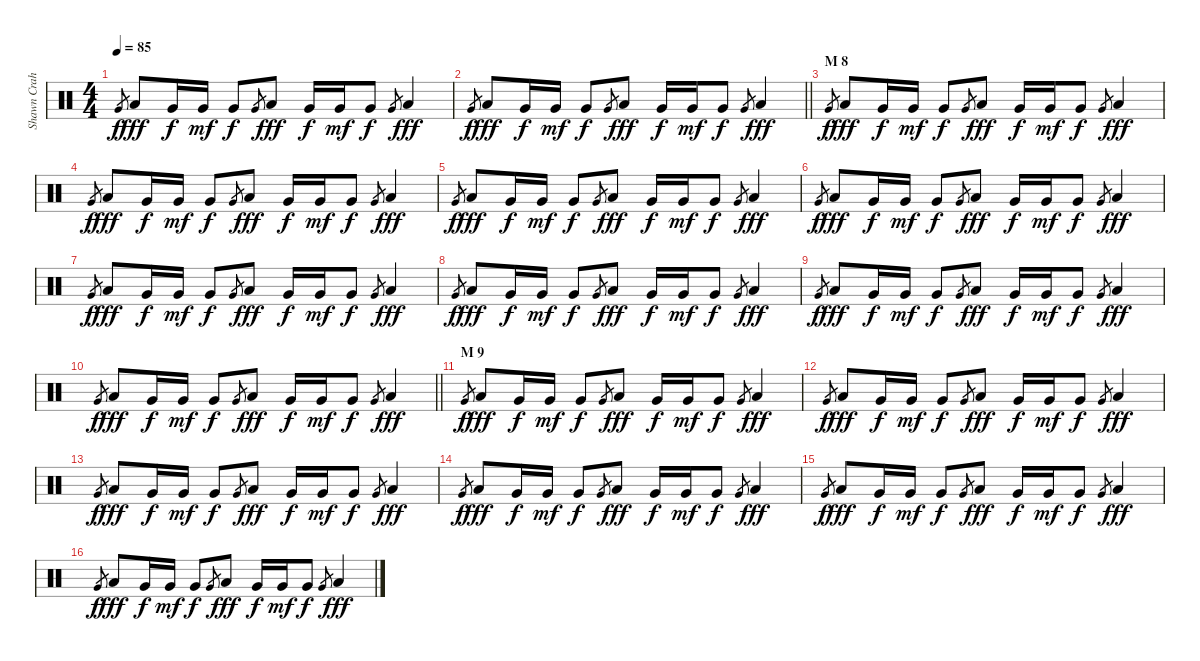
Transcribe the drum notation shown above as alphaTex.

\track ("Shawn Crahan" "Shawn Crah") {instrument percussion}
\staff {score}
\articulation defaults
\ts (4 4)
\tempo 85
\clef neutral
\ks c "Very Low Tom (hit)".8{gr dy f} "Low Tom (hit)".8{dy fff} "Very Low Tom (hit)".16{dy f} "Very Low Tom (hit)".16{dy mf} "Very Low Tom (hit)".8{dy f} "Very Low Tom (hit)".8{gr} "Low Tom (hit)".8{dy fff} "Very Low Tom (hit)".16{dy f} "Very Low Tom (hit)".16{dy mf} "Very Low Tom (hit)".8{dy f} "Very Low Tom (hit)".8{gr} "Low Tom (hit)".4{dy fff}
|
\barLineRight lightlight "Very Low Tom (hit)".8{gr dy f} "Low Tom (hit)".8{dy fff} "Very Low Tom (hit)".16{dy f} "Very Low Tom (hit)".16{dy mf} "Very Low Tom (hit)".8{dy f} "Very Low Tom (hit)".8{gr} "Low Tom (hit)".8{dy fff} "Very Low Tom (hit)".16{dy f} "Very Low Tom (hit)".16{dy mf} "Very Low Tom (hit)".8{dy f} "Very Low Tom (hit)".8{gr} "Low Tom (hit)".4{dy fff}
|
\section ("" "M 8")
"Very Low Tom (hit)".8{gr dy f} "Low Tom (hit)".8{dy fff} "Very Low Tom (hit)".16{dy f} "Very Low Tom (hit)".16{dy mf} "Very Low Tom (hit)".8{dy f} "Very Low Tom (hit)".8{gr} "Low Tom (hit)".8{dy fff} "Very Low Tom (hit)".16{dy f} "Very Low Tom (hit)".16{dy mf} "Very Low Tom (hit)".8{dy f} "Very Low Tom (hit)".8{gr} "Low Tom (hit)".4{dy fff} |
"Very Low Tom (hit)".8{gr dy f} "Low Tom (hit)".8{dy fff} "Very Low Tom (hit)".16{dy f} "Very Low Tom (hit)".16{dy mf} "Very Low Tom (hit)".8{dy f} "Very Low Tom (hit)".8{gr} "Low Tom (hit)".8{dy fff} "Very Low Tom (hit)".16{dy f} "Very Low Tom (hit)".16{dy mf} "Very Low Tom (hit)".8{dy f} "Very Low Tom (hit)".8{gr} "Low Tom (hit)".4{dy fff} |
"Very Low Tom (hit)".8{gr dy f} "Low Tom (hit)".8{dy fff} "Very Low Tom (hit)".16{dy f} "Very Low Tom (hit)".16{dy mf} "Very Low Tom (hit)".8{dy f} "Very Low Tom (hit)".8{gr} "Low Tom (hit)".8{dy fff} "Very Low Tom (hit)".16{dy f} "Very Low Tom (hit)".16{dy mf} "Very Low Tom (hit)".8{dy f} "Very Low Tom (hit)".8{gr} "Low Tom (hit)".4{dy fff} |
"Very Low Tom (hit)".8{gr dy f} "Low Tom (hit)".8{dy fff} "Very Low Tom (hit)".16{dy f} "Very Low Tom (hit)".16{dy mf} "Very Low Tom (hit)".8{dy f} "Very Low Tom (hit)".8{gr} "Low Tom (hit)".8{dy fff} "Very Low Tom (hit)".16{dy f} "Very Low Tom (hit)".16{dy mf} "Very Low Tom (hit)".8{dy f} "Very Low Tom (hit)".8{gr} "Low Tom (hit)".4{dy fff} |
"Very Low Tom (hit)".8{gr dy f} "Low Tom (hit)".8{dy fff} "Very Low Tom (hit)".16{dy f} "Very Low Tom (hit)".16{dy mf} "Very Low Tom (hit)".8{dy f} "Very Low Tom (hit)".8{gr} "Low Tom (hit)".8{dy fff} "Very Low Tom (hit)".16{dy f} "Very Low Tom (hit)".16{dy mf} "Very Low Tom (hit)".8{dy f} "Very Low Tom (hit)".8{gr} "Low Tom (hit)".4{dy fff} |
"Very Low Tom (hit)".8{gr dy f} "Low Tom (hit)".8{dy fff} "Very Low Tom (hit)".16{dy f} "Very Low Tom (hit)".16{dy mf} "Very Low Tom (hit)".8{dy f} "Very Low Tom (hit)".8{gr} "Low Tom (hit)".8{dy fff} "Very Low Tom (hit)".16{dy f} "Very Low Tom (hit)".16{dy mf} "Very Low Tom (hit)".8{dy f} "Very Low Tom (hit)".8{gr} "Low Tom (hit)".4{dy fff} |
"Very Low Tom (hit)".8{gr dy f} "Low Tom (hit)".8{dy fff} "Very Low Tom (hit)".16{dy f} "Very Low Tom (hit)".16{dy mf} "Very Low Tom (hit)".8{dy f} "Very Low Tom (hit)".8{gr} "Low Tom (hit)".8{dy fff} "Very Low Tom (hit)".16{dy f} "Very Low Tom (hit)".16{dy mf} "Very Low Tom (hit)".8{dy f} "Very Low Tom (hit)".8{gr} "Low Tom (hit)".4{dy fff} |
\barLineRight lightlight "Very Low Tom (hit)".8{gr dy f} "Low Tom (hit)".8{dy fff} "Very Low Tom (hit)".16{dy f} "Very Low Tom (hit)".16{dy mf} "Very Low Tom (hit)".8{dy f} "Very Low Tom (hit)".8{gr} "Low Tom (hit)".8{dy fff} "Very Low Tom (hit)".16{dy f} "Very Low Tom (hit)".16{dy mf} "Very Low Tom (hit)".8{dy f} "Very Low Tom (hit)".8{gr} "Low Tom (hit)".4{dy fff}
|
\section ("" "M 9")
"Very Low Tom (hit)".8{gr dy f} "Low Tom (hit)".8{dy fff} "Very Low Tom (hit)".16{dy f} "Very Low Tom (hit)".16{dy mf} "Very Low Tom (hit)".8{dy f} "Very Low Tom (hit)".8{gr} "Low Tom (hit)".8{dy fff} "Very Low Tom (hit)".16{dy f} "Very Low Tom (hit)".16{dy mf} "Very Low Tom (hit)".8{dy f} "Very Low Tom (hit)".8{gr} "Low Tom (hit)".4{dy fff} |
"Very Low Tom (hit)".8{gr dy f} "Low Tom (hit)".8{dy fff} "Very Low Tom (hit)".16{dy f} "Very Low Tom (hit)".16{dy mf} "Very Low Tom (hit)".8{dy f} "Very Low Tom (hit)".8{gr} "Low Tom (hit)".8{dy fff} "Very Low Tom (hit)".16{dy f} "Very Low Tom (hit)".16{dy mf} "Very Low Tom (hit)".8{dy f} "Very Low Tom (hit)".8{gr} "Low Tom (hit)".4{dy fff} |
"Very Low Tom (hit)".8{gr dy f} "Low Tom (hit)".8{dy fff} "Very Low Tom (hit)".16{dy f} "Very Low Tom (hit)".16{dy mf} "Very Low Tom (hit)".8{dy f} "Very Low Tom (hit)".8{gr} "Low Tom (hit)".8{dy fff} "Very Low Tom (hit)".16{dy f} "Very Low Tom (hit)".16{dy mf} "Very Low Tom (hit)".8{dy f} "Very Low Tom (hit)".8{gr} "Low Tom (hit)".4{dy fff} |
"Very Low Tom (hit)".8{gr dy f} "Low Tom (hit)".8{dy fff} "Very Low Tom (hit)".16{dy f} "Very Low Tom (hit)".16{dy mf} "Very Low Tom (hit)".8{dy f} "Very Low Tom (hit)".8{gr} "Low Tom (hit)".8{dy fff} "Very Low Tom (hit)".16{dy f} "Very Low Tom (hit)".16{dy mf} "Very Low Tom (hit)".8{dy f} "Very Low Tom (hit)".8{gr} "Low Tom (hit)".4{dy fff} |
"Very Low Tom (hit)".8{gr dy f} "Low Tom (hit)".8{dy fff} "Very Low Tom (hit)".16{dy f} "Very Low Tom (hit)".16{dy mf} "Very Low Tom (hit)".8{dy f} "Very Low Tom (hit)".8{gr} "Low Tom (hit)".8{dy fff} "Very Low Tom (hit)".16{dy f} "Very Low Tom (hit)".16{dy mf} "Very Low Tom (hit)".8{dy f} "Very Low Tom (hit)".8{gr} "Low Tom (hit)".4{dy fff} |
"Very Low Tom (hit)".8{gr dy f} "Low Tom (hit)".8{dy fff} "Very Low Tom (hit)".16{dy f} "Very Low Tom (hit)".16{dy mf} "Very Low Tom (hit)".8{dy f} "Very Low Tom (hit)".8{gr} "Low Tom (hit)".8{dy fff} "Very Low Tom (hit)".16{dy f} "Very Low Tom (hit)".16{dy mf} "Very Low Tom (hit)".8{dy f} "Very Low Tom (hit)".8{gr} "Low Tom (hit)".4{dy fff}
